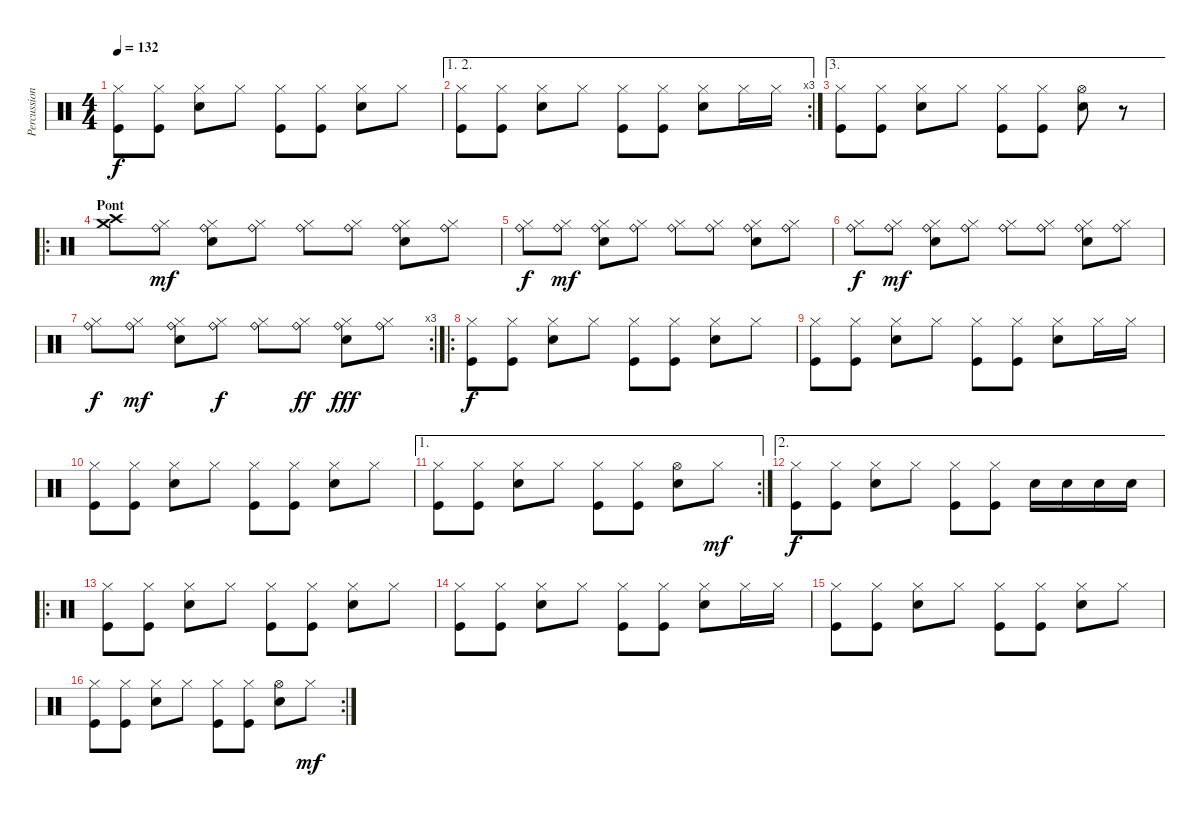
\track ("Percussions" "Percussion") {instrument percussion}
\staff {score}
\articulation defaults
\ts (4 4)
\tempo 132
\clef neutral
\ks c
("Hi-Hat (closed)" "Kick (hit)").8{dy f} ("Hi-Hat (closed)" "Kick (hit)").8 ("Hi-Hat (closed)" "Electric Snare (hit)").8 "Hi-Hat (closed)".8 ("Hi-Hat (closed)" "Kick (hit)").8 ("Hi-Hat (closed)" "Kick (hit)").8 ("Hi-Hat (closed)" "Electric Snare (hit)").8 "Hi-Hat (closed)".8 |
\ae (1 2)
\rc 3
("Hi-Hat (closed)" "Kick (hit)").8 ("Hi-Hat (closed)" "Kick (hit)").8 ("Hi-Hat (closed)" "Electric Snare (hit)").8 "Hi-Hat (closed)".8 ("Hi-Hat (closed)" "Kick (hit)").8 ("Hi-Hat (closed)" "Kick (hit)").8 ("Hi-Hat (closed)" "Electric Snare (hit)").8 "Hi-Hat (closed)".16 "Hi-Hat (closed)".16 |
\ae 3
("Hi-Hat (closed)" "Kick (hit)").8 ("Hi-Hat (closed)" "Kick (hit)").8 ("Hi-Hat (closed)" "Electric Snare (hit)").8 "Hi-Hat (closed)".8 ("Hi-Hat (closed)" "Kick (hit)").8 ("Hi-Hat (closed)" "Kick (hit)").8 ("Hi-Hat (open)" "Electric Snare (hit)").8 r.8 |
\ro
\section ("" "Pont")
("Crash medium (hit)" "Crash high (hit)").8 ("Hi-Hat (closed)" "Ride (bell)").8{dy mf} ("Hi-Hat (closed)" "Ride (bell)" "Electric Snare (hit)").8 ("Hi-Hat (closed)" "Ride (bell)").8 ("Hi-Hat (closed)" "Ride (bell)").8 ("Hi-Hat (closed)" "Ride (bell)").8 ("Hi-Hat (closed)" "Ride (bell)" "Electric Snare (hit)").8 ("Hi-Hat (closed)" "Ride (bell)").8 |
("Hi-Hat (closed)" "Ride (bell)").8{dy f} ("Hi-Hat (closed)" "Ride (bell)").8{dy mf} ("Hi-Hat (closed)" "Ride (bell)" "Electric Snare (hit)").8 ("Hi-Hat (closed)" "Ride (bell)").8 ("Hi-Hat (closed)" "Ride (bell)").8 ("Hi-Hat (closed)" "Ride (bell)").8 ("Hi-Hat (closed)" "Ride (bell)" "Electric Snare (hit)").8 ("Hi-Hat (closed)" "Ride (bell)").8 |
("Hi-Hat (closed)" "Ride (bell)").8{dy f} ("Hi-Hat (closed)" "Ride (bell)").8{dy mf} ("Hi-Hat (closed)" "Ride (bell)" "Electric Snare (hit)").8 ("Hi-Hat (closed)" "Ride (bell)").8 ("Hi-Hat (closed)" "Ride (bell)").8 ("Hi-Hat (closed)" "Ride (bell)").8 ("Hi-Hat (closed)" "Ride (bell)" "Electric Snare (hit)").8 ("Hi-Hat (closed)" "Ride (bell)").8 |
\rc 3
("Hi-Hat (closed)" "Ride (bell)").8{dy f} ("Hi-Hat (closed)" "Ride (bell)").8{dy mf} ("Hi-Hat (closed)" "Ride (bell)" "Electric Snare (hit)").8 ("Hi-Hat (closed)" "Ride (bell)").8{dy f} ("Hi-Hat (closed)" "Ride (bell)").8 ("Hi-Hat (closed)" "Ride (bell)").8{dy ff} ("Hi-Hat (closed)" "Ride (bell)" "Electric Snare (hit)").8{dy fff} ("Hi-Hat (closed)" "Ride (bell)").8 |
\ro
("Hi-Hat (closed)" "Kick (hit)").8{dy f} ("Hi-Hat (closed)" "Kick (hit)").8 ("Hi-Hat (closed)" "Electric Snare (hit)").8 "Hi-Hat (closed)".8 ("Hi-Hat (closed)" "Kick (hit)").8 ("Hi-Hat (closed)" "Kick (hit)").8 ("Hi-Hat (closed)" "Electric Snare (hit)").8 "Hi-Hat (closed)".8 |
("Hi-Hat (closed)" "Kick (hit)").8 ("Hi-Hat (closed)" "Kick (hit)").8 ("Hi-Hat (closed)" "Electric Snare (hit)").8 "Hi-Hat (closed)".8 ("Hi-Hat (closed)" "Kick (hit)").8 ("Hi-Hat (closed)" "Kick (hit)").8 ("Hi-Hat (closed)" "Electric Snare (hit)").8 "Hi-Hat (closed)".16 "Hi-Hat (closed)".16 |
("Hi-Hat (closed)" "Kick (hit)").8 ("Hi-Hat (closed)" "Kick (hit)").8 ("Hi-Hat (closed)" "Electric Snare (hit)").8 "Hi-Hat (closed)".8 ("Hi-Hat (closed)" "Kick (hit)").8 ("Hi-Hat (closed)" "Kick (hit)").8 ("Hi-Hat (closed)" "Electric Snare (hit)").8 "Hi-Hat (closed)".8 |
\ae 1
\rc 2
("Hi-Hat (closed)" "Kick (hit)").8 ("Hi-Hat (closed)" "Kick (hit)").8 ("Hi-Hat (closed)" "Electric Snare (hit)").8 "Hi-Hat (closed)".8 ("Hi-Hat (closed)" "Kick (hit)").8 ("Hi-Hat (closed)" "Kick (hit)").8 ("Hi-Hat (open)" "Electric Snare (hit)").8 "Hi-Hat (closed)".8{dy mf} |
\ae 2
("Hi-Hat (closed)" "Kick (hit)").8{dy f} ("Hi-Hat (closed)" "Kick (hit)").8 ("Hi-Hat (closed)" "Electric Snare (hit)").8 "Hi-Hat (closed)".8 ("Hi-Hat (closed)" "Kick (hit)").8 ("Hi-Hat (closed)" "Kick (hit)").8 "Electric Snare (hit)".16 "Electric Snare (hit)".16 "Electric Snare (hit)".16 "Electric Snare (hit)".16 |
\ro
("Hi-Hat (closed)" "Kick (hit)").8 ("Hi-Hat (closed)" "Kick (hit)").8 ("Hi-Hat (closed)" "Electric Snare (hit)").8 "Hi-Hat (closed)".8 ("Hi-Hat (closed)" "Kick (hit)").8 ("Hi-Hat (closed)" "Kick (hit)").8 ("Hi-Hat (closed)" "Electric Snare (hit)").8 "Hi-Hat (closed)".8 |
("Hi-Hat (closed)" "Kick (hit)").8 ("Hi-Hat (closed)" "Kick (hit)").8 ("Hi-Hat (closed)" "Electric Snare (hit)").8 "Hi-Hat (closed)".8 ("Hi-Hat (closed)" "Kick (hit)").8 ("Hi-Hat (closed)" "Kick (hit)").8 ("Hi-Hat (closed)" "Electric Snare (hit)").8 "Hi-Hat (closed)".16 "Hi-Hat (closed)".16 |
("Hi-Hat (closed)" "Kick (hit)").8 ("Hi-Hat (closed)" "Kick (hit)").8 ("Hi-Hat (closed)" "Electric Snare (hit)").8 "Hi-Hat (closed)".8 ("Hi-Hat (closed)" "Kick (hit)").8 ("Hi-Hat (closed)" "Kick (hit)").8 ("Hi-Hat (closed)" "Electric Snare (hit)").8 "Hi-Hat (closed)".8 |
\rc 2
("Hi-Hat (closed)" "Kick (hit)").8 ("Hi-Hat (closed)" "Kick (hit)").8 ("Hi-Hat (closed)" "Electric Snare (hit)").8 "Hi-Hat (closed)".8 ("Hi-Hat (closed)" "Kick (hit)").8 ("Hi-Hat (closed)" "Kick (hit)").8 ("Hi-Hat (open)" "Electric Snare (hit)").8 "Hi-Hat (closed)".8{dy mf}
